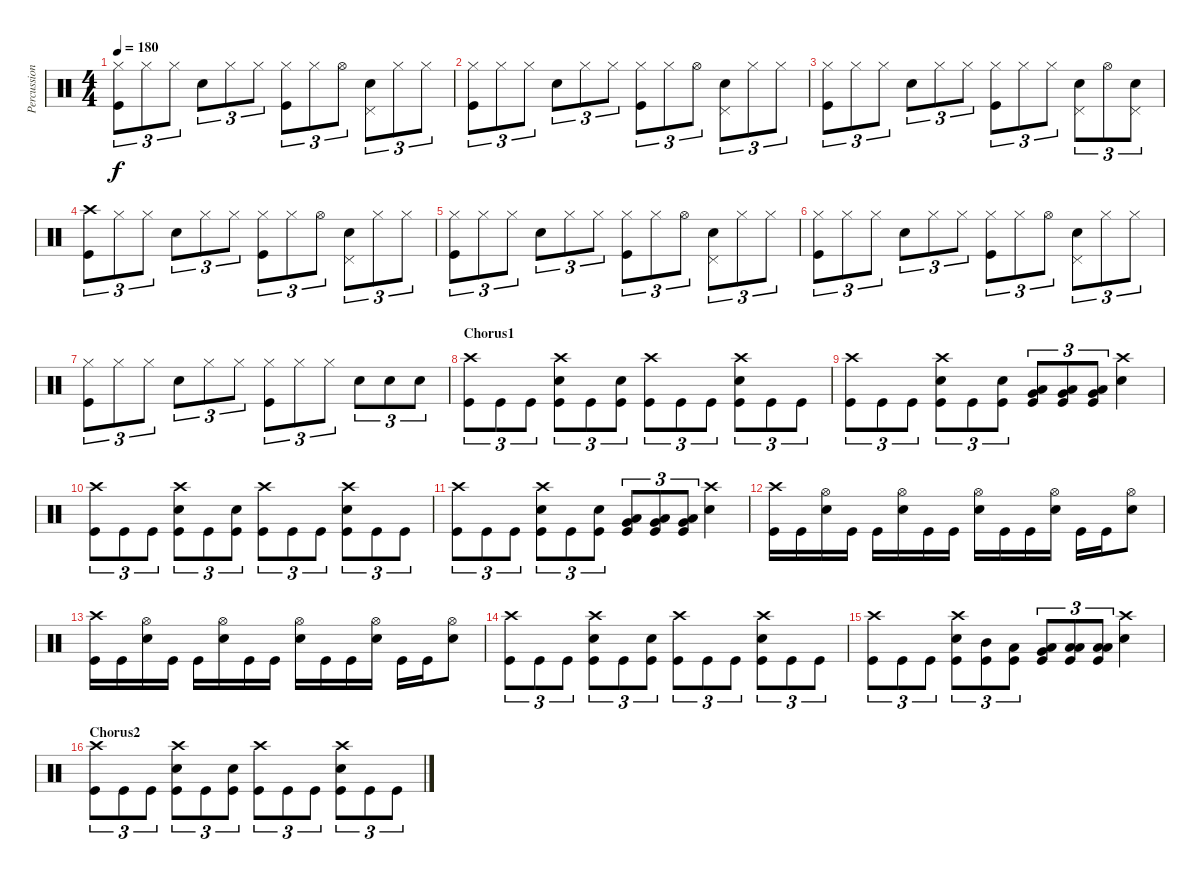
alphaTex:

\track ("Percussions" "Percussion") {instrument percussion}
\staff {score}
\articulation defaults
\ts (4 4)
\tempo 180
\clef neutral
\ks c
("Hi-Hat (closed)" "Kick (hit)").8{tu (3 2) dy f} "Hi-Hat (closed)".8{tu (3 2)} "Hi-Hat (closed)".8{tu (3 2)} "Electric Snare (hit)".8{tu (3 2)} "Hi-Hat (closed)".8{tu (3 2)} "Hi-Hat (closed)".8{tu (3 2)} ("Hi-Hat (closed)" "Kick (hit)").8{tu (3 2)} "Hi-Hat (closed)".8{tu (3 2)} "Hi-Hat (open)".8{tu (3 2)} ("Pedal Hi-Hat (hit)" "Electric Snare (hit)").8{tu (3 2)} "Hi-Hat (closed)".8{tu (3 2)} "Hi-Hat (closed)".8{tu (3 2)} |
("Hi-Hat (closed)" "Kick (hit)").8{tu (3 2)} "Hi-Hat (closed)".8{tu (3 2)} "Hi-Hat (closed)".8{tu (3 2)} "Electric Snare (hit)".8{tu (3 2)} "Hi-Hat (closed)".8{tu (3 2)} "Hi-Hat (closed)".8{tu (3 2)} ("Hi-Hat (closed)" "Kick (hit)").8{tu (3 2)} "Hi-Hat (closed)".8{tu (3 2)} "Hi-Hat (open)".8{tu (3 2)} ("Pedal Hi-Hat (hit)" "Electric Snare (hit)").8{tu (3 2)} "Hi-Hat (closed)".8{tu (3 2)} "Hi-Hat (closed)".8{tu (3 2)} |
("Hi-Hat (closed)" "Kick (hit)").8{tu (3 2)} "Hi-Hat (closed)".8{tu (3 2)} "Hi-Hat (closed)".8{tu (3 2)} "Electric Snare (hit)".8{tu (3 2)} "Hi-Hat (closed)".8{tu (3 2)} "Hi-Hat (closed)".8{tu (3 2)} ("Hi-Hat (closed)" "Kick (hit)").8{tu (3 2)} "Hi-Hat (closed)".8{tu (3 2)} "Hi-Hat (closed)".8{tu (3 2)} ("Pedal Hi-Hat (hit)" "Electric Snare (hit)").8{tu (3 2)} "Hi-Hat (open)".8{tu (3 2)} ("Pedal Hi-Hat (hit)" "Electric Snare (hit)").8{tu (3 2)} |
("Crash high (hit)" "Kick (hit)").8{tu (3 2)} "Hi-Hat (closed)".8{tu (3 2)} "Hi-Hat (closed)".8{tu (3 2)} "Electric Snare (hit)".8{tu (3 2)} "Hi-Hat (closed)".8{tu (3 2)} "Hi-Hat (closed)".8{tu (3 2)} ("Hi-Hat (closed)" "Kick (hit)").8{tu (3 2)} "Hi-Hat (closed)".8{tu (3 2)} "Hi-Hat (open)".8{tu (3 2)} ("Pedal Hi-Hat (hit)" "Electric Snare (hit)").8{tu (3 2)} "Hi-Hat (closed)".8{tu (3 2)} "Hi-Hat (closed)".8{tu (3 2)} |
("Hi-Hat (closed)" "Kick (hit)").8{tu (3 2)} "Hi-Hat (closed)".8{tu (3 2)} "Hi-Hat (closed)".8{tu (3 2)} "Electric Snare (hit)".8{tu (3 2)} "Hi-Hat (closed)".8{tu (3 2)} "Hi-Hat (closed)".8{tu (3 2)} ("Hi-Hat (closed)" "Kick (hit)").8{tu (3 2)} "Hi-Hat (closed)".8{tu (3 2)} "Hi-Hat (open)".8{tu (3 2)} ("Pedal Hi-Hat (hit)" "Electric Snare (hit)").8{tu (3 2)} "Hi-Hat (closed)".8{tu (3 2)} "Hi-Hat (closed)".8{tu (3 2)} |
("Hi-Hat (closed)" "Kick (hit)").8{tu (3 2)} "Hi-Hat (closed)".8{tu (3 2)} "Hi-Hat (closed)".8{tu (3 2)} "Electric Snare (hit)".8{tu (3 2)} "Hi-Hat (closed)".8{tu (3 2)} "Hi-Hat (closed)".8{tu (3 2)} ("Hi-Hat (closed)" "Kick (hit)").8{tu (3 2)} "Hi-Hat (closed)".8{tu (3 2)} "Hi-Hat (open)".8{tu (3 2)} ("Pedal Hi-Hat (hit)" "Electric Snare (hit)").8{tu (3 2)} "Hi-Hat (closed)".8{tu (3 2)} "Hi-Hat (closed)".8{tu (3 2)} |
("Hi-Hat (closed)" "Kick (hit)").8{tu (3 2)} "Hi-Hat (closed)".8{tu (3 2)} "Hi-Hat (closed)".8{tu (3 2)} "Electric Snare (hit)".8{tu (3 2)} "Hi-Hat (closed)".8{tu (3 2)} "Hi-Hat (closed)".8{tu (3 2)} ("Hi-Hat (closed)" "Kick (hit)").8{tu (3 2)} "Hi-Hat (closed)".8{tu (3 2)} "Hi-Hat (closed)".8{tu (3 2)} "Electric Snare (hit)".8{tu (3 2)} "Electric Snare (hit)".8{tu (3 2)} "Electric Snare (hit)".8{tu (3 2)} |
\section ("" "Chorus1")
("Crash high (hit)" "Kick (hit)").8{tu (3 2)} "Kick (hit)".8{tu (3 2)} "Kick (hit)".8{tu (3 2)} ("Crash high (hit)" "Electric Snare (hit)" "Kick (hit)").8{tu (3 2)} "Kick (hit)".8{tu (3 2)} ("Electric Snare (hit)" "Kick (hit)").8{tu (3 2)} ("Crash high (hit)" "Kick (hit)").8{tu (3 2)} "Kick (hit)".8{tu (3 2)} "Kick (hit)".8{tu (3 2)} ("Crash high (hit)" "Electric Snare (hit)" "Kick (hit)").8{tu (3 2)} "Kick (hit)".8{tu (3 2)} "Kick (hit)".8{tu (3 2)} |
("Crash high (hit)" "Kick (hit)").8{tu (3 2)} "Kick (hit)".8{tu (3 2)} "Kick (hit)".8{tu (3 2)} ("Crash high (hit)" "Electric Snare (hit)" "Kick (hit)").8{tu (3 2)} "Kick (hit)".8{tu (3 2)} ("Electric Snare (hit)" "Kick (hit)").8{tu (3 2)} ("Very Low Tom (hit)" "Low Floor Tom (hit)" "Kick (hit)").8{tu (3 2)} ("Very Low Tom (hit)" "Low Floor Tom (hit)" "Kick (hit)").8{tu (3 2)} ("Very Low Tom (hit)" "Low Floor Tom (hit)" "Kick (hit)").8{tu (3 2)} ("Crash high (hit)" "Electric Snare (hit)").4 |
("Crash high (hit)" "Kick (hit)").8{tu (3 2)} "Kick (hit)".8{tu (3 2)} "Kick (hit)".8{tu (3 2)} ("Crash high (hit)" "Electric Snare (hit)" "Kick (hit)").8{tu (3 2)} "Kick (hit)".8{tu (3 2)} ("Electric Snare (hit)" "Kick (hit)").8{tu (3 2)} ("Crash high (hit)" "Kick (hit)").8{tu (3 2)} "Kick (hit)".8{tu (3 2)} "Kick (hit)".8{tu (3 2)} ("Crash high (hit)" "Electric Snare (hit)" "Kick (hit)").8{tu (3 2)} "Kick (hit)".8{tu (3 2)} "Kick (hit)".8{tu (3 2)} |
("Crash high (hit)" "Kick (hit)").8{tu (3 2)} "Kick (hit)".8{tu (3 2)} "Kick (hit)".8{tu (3 2)} ("Crash high (hit)" "Electric Snare (hit)" "Kick (hit)").8{tu (3 2)} "Kick (hit)".8{tu (3 2)} ("Electric Snare (hit)" "Kick (hit)").8{tu (3 2)} ("Very Low Tom (hit)" "Low Floor Tom (hit)" "Kick (hit)").8{tu (3 2)} ("Very Low Tom (hit)" "Low Floor Tom (hit)" "Kick (hit)").8{tu (3 2)} ("Very Low Tom (hit)" "Low Floor Tom (hit)" "Kick (hit)").8{tu (3 2)} ("Crash high (hit)" "Electric Snare (hit)").4 |
("Crash high (hit)" "Kick (hit)").16 "Kick (hit)".16 ("Hi-Hat (open)" "Electric Snare (hit)").16 "Kick (hit)".16 "Kick (hit)".16 ("Hi-Hat (open)" "Electric Snare (hit)").16 "Kick (hit)".16 "Kick (hit)".16 ("Hi-Hat (open)" "Electric Snare (hit)").16 "Kick (hit)".16 "Kick (hit)".16 ("Hi-Hat (open)" "Electric Snare (hit)").16 "Kick (hit)".16 "Kick (hit)".16 ("Hi-Hat (open)" "Electric Snare (hit)").8 |
("Crash high (hit)" "Kick (hit)").16 "Kick (hit)".16 ("Hi-Hat (open)" "Electric Snare (hit)").16 "Kick (hit)".16 "Kick (hit)".16 ("Hi-Hat (open)" "Electric Snare (hit)").16 "Kick (hit)".16 "Kick (hit)".16 ("Hi-Hat (open)" "Electric Snare (hit)").16 "Kick (hit)".16 "Kick (hit)".16 ("Hi-Hat (open)" "Electric Snare (hit)").16 "Kick (hit)".16 "Kick (hit)".16 ("Hi-Hat (open)" "Electric Snare (hit)").8 |
("Crash high (hit)" "Kick (hit)").8{tu (3 2)} "Kick (hit)".8{tu (3 2)} "Kick (hit)".8{tu (3 2)} ("Crash high (hit)" "Electric Snare (hit)" "Kick (hit)").8{tu (3 2)} "Kick (hit)".8{tu (3 2)} ("Electric Snare (hit)" "Kick (hit)").8{tu (3 2)} ("Crash high (hit)" "Kick (hit)").8{tu (3 2)} "Kick (hit)".8{tu (3 2)} "Kick (hit)".8{tu (3 2)} ("Crash high (hit)" "Electric Snare (hit)" "Kick (hit)").8{tu (3 2)} "Kick (hit)".8{tu (3 2)} "Kick (hit)".8{tu (3 2)} |
("Crash high (hit)" "Kick (hit)").8{tu (3 2)} "Kick (hit)".8{tu (3 2)} "Kick (hit)".8{tu (3 2)} ("Crash high (hit)" "Electric Snare (hit)" "Kick (hit)").8{tu (3 2)} ("Mid Tom (hit)" "Kick (hit)").8{tu (3 2)} ("Low Tom (hit)" "Kick (hit)").8{tu (3 2)} ("Very Low Tom (hit)" "Low Floor Tom (hit)" "Kick (hit)").8{tu (3 2)} ("Low Floor Tom (hit)" "Low Floor Tom (hit)" "Kick (hit)").8{tu (3 2)} ("Low Floor Tom (hit)" "Low Floor Tom (hit)" "Kick (hit)").8{tu (3 2)} ("Crash high (hit)" "Electric Snare (hit)").4 |
\section ("" "Chorus2")
("Crash high (hit)" "Kick (hit)").8{tu (3 2)} "Kick (hit)".8{tu (3 2)} "Kick (hit)".8{tu (3 2)} ("Crash high (hit)" "Electric Snare (hit)" "Kick (hit)").8{tu (3 2)} "Kick (hit)".8{tu (3 2)} ("Electric Snare (hit)" "Kick (hit)").8{tu (3 2)} ("Crash high (hit)" "Kick (hit)").8{tu (3 2)} "Kick (hit)".8{tu (3 2)} "Kick (hit)".8{tu (3 2)} ("Crash high (hit)" "Electric Snare (hit)" "Kick (hit)").8{tu (3 2)} "Kick (hit)".8{tu (3 2)} "Kick (hit)".8{tu (3 2)}
